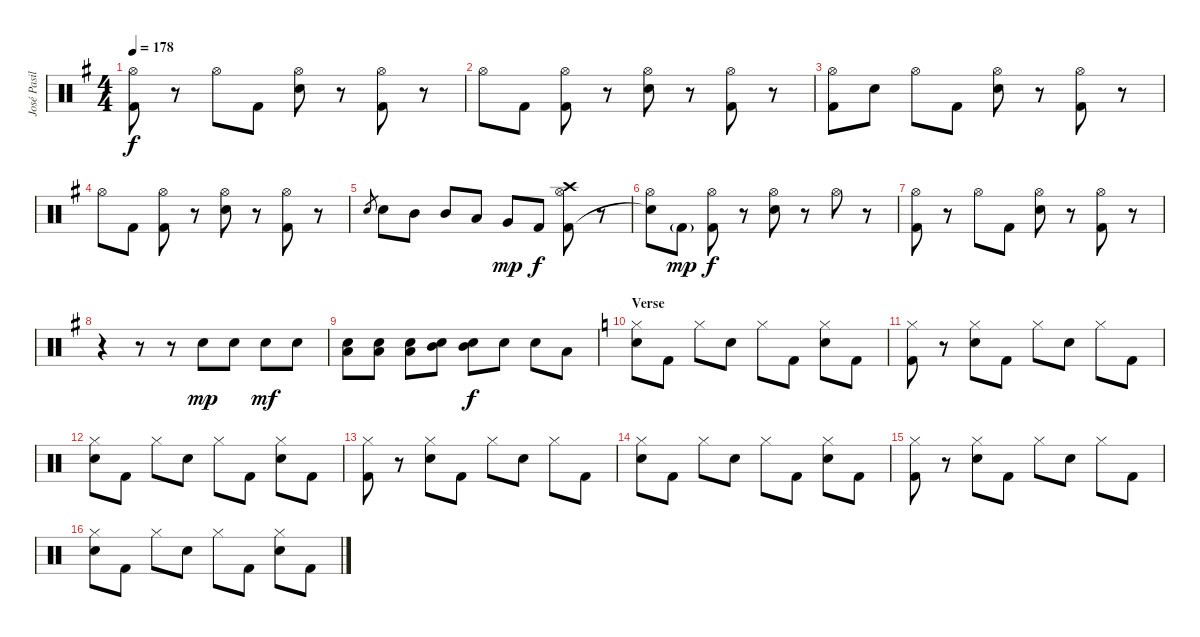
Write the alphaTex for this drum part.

\track ("José Pasillas [Drums]" "José Pasil") {instrument percussion}
\staff {score}
\articulation defaults
\ts (4 4)
\tempo 178
\clef neutral
\ks g
("Kick (hit) 2" "Hi-Hat (open)").8{dy f} r.8 "Hi-Hat (open)".8 "Kick (hit) 2".8 ("Electric Snare (hit)" "Hi-Hat (open)").8 r.8 ("Kick (hit) 2" "Hi-Hat (open)").8 r.8 |
"Hi-Hat (open)".8 "Kick (hit) 2".8 ("Kick (hit) 2" "Hi-Hat (open)").8 r.8 ("Electric Snare (hit)" "Hi-Hat (open)").8 r.8 ("Kick (hit) 2" "Hi-Hat (open)").8 r.8 |
("Kick (hit) 2" "Hi-Hat (open)").8 "Electric Snare (hit)".8 "Hi-Hat (open)".8 "Kick (hit) 2".8 ("Electric Snare (hit)" "Hi-Hat (open)").8 r.8 ("Kick (hit) 2" "Hi-Hat (open)").8 r.8 |
"Hi-Hat (open)".8 "Kick (hit) 2".8 ("Kick (hit) 2" "Hi-Hat (open)").8 r.8 ("Electric Snare (hit)" "Hi-Hat (open)").8 r.8 ("Kick (hit) 2" "Hi-Hat (open)").8 r.8 |
"Electric Snare (hit)".8{gr} "Electric Snare (hit)".8 "Mid Tom (hit)".8 "Mid Tom (hit)".8 "Low Tom (hit)".8 "Very Low Tom (hit)".8{dy mp} "Kick (hit) 2".8{dy f} ("Kick (hit) 2" "Crash high (hit)" "Hi-Hat (open)").8 r.8 |
("Snare (hit)"{t} "Hi-Hat (open)").8 "Kick (hit) 2"{g}.8{dy mp} ("Kick (hit) 2" "Hi-Hat (open)").8{dy f} r.8 ("Electric Snare (hit)" "Hi-Hat (open)").8 r.8 "Hi-Hat (open)".8 r.8 |
("Kick (hit) 2" "Hi-Hat (open)").8 r.8 "Hi-Hat (open)".8 "Kick (hit) 2".8 ("Electric Snare (hit)" "Hi-Hat (open)").8 r.8 ("Kick (hit) 2" "Hi-Hat (open)").8 r.8 |
r.4 r.8 r.8 "Electric Snare (hit)".8{dy mp} "Electric Snare (hit)".8 "Electric Snare (hit)".8{dy mf} "Electric Snare (hit)".8 |
("Low Tom (hit)" "Electric Snare (hit)").8 ("Low Tom (hit)" "Electric Snare (hit)").8 ("Low Tom (hit)" "Electric Snare (hit)").8 ("Mid Tom (hit)" "Electric Snare (hit)").8 ("Mid Tom (hit)" "Electric Snare (hit)").8{dy f} "Electric Snare (hit)".8 "Electric Snare (hit)".8 "Low Tom (hit)".8 |
\section ("" "Verse")
\ks c
("Electric Snare (hit)" "Hi-Hat (closed)").8 "Kick (hit) 2".8 "Hi-Hat (closed)".8 "Electric Snare (hit)".8 "Hi-Hat (closed)".8 "Kick (hit) 2".8 ("Electric Snare (hit)" "Hi-Hat (closed)").8 "Kick (hit) 2".8 |
("Kick (hit) 2" "Hi-Hat (closed)").8 r.8 ("Electric Snare (hit)" "Hi-Hat (closed)").8 "Kick (hit) 2".8 "Hi-Hat (closed)".8 "Electric Snare (hit)".8 "Hi-Hat (closed)".8 "Kick (hit) 2".8 |
("Electric Snare (hit)" "Hi-Hat (closed)").8 "Kick (hit) 2".8 "Hi-Hat (closed)".8 "Electric Snare (hit)".8 "Hi-Hat (closed)".8 "Kick (hit) 2".8 ("Electric Snare (hit)" "Hi-Hat (closed)").8 "Kick (hit) 2".8 |
("Kick (hit) 2" "Hi-Hat (closed)").8 r.8 ("Electric Snare (hit)" "Hi-Hat (closed)").8 "Kick (hit) 2".8 "Hi-Hat (closed)".8 "Electric Snare (hit)".8 "Hi-Hat (closed)".8 "Kick (hit) 2".8 |
("Electric Snare (hit)" "Hi-Hat (closed)").8 "Kick (hit) 2".8 "Hi-Hat (closed)".8 "Electric Snare (hit)".8 "Hi-Hat (closed)".8 "Kick (hit) 2".8 ("Electric Snare (hit)" "Hi-Hat (closed)").8 "Kick (hit) 2".8 |
("Kick (hit) 2" "Hi-Hat (closed)").8 r.8 ("Electric Snare (hit)" "Hi-Hat (closed)").8 "Kick (hit) 2".8 "Hi-Hat (closed)".8 "Electric Snare (hit)".8 "Hi-Hat (closed)".8 "Kick (hit) 2".8 |
("Electric Snare (hit)" "Hi-Hat (closed)").8 "Kick (hit) 2".8 "Hi-Hat (closed)".8 "Electric Snare (hit)".8 "Hi-Hat (closed)".8 "Kick (hit) 2".8 ("Electric Snare (hit)" "Hi-Hat (closed)").8 "Kick (hit) 2".8
